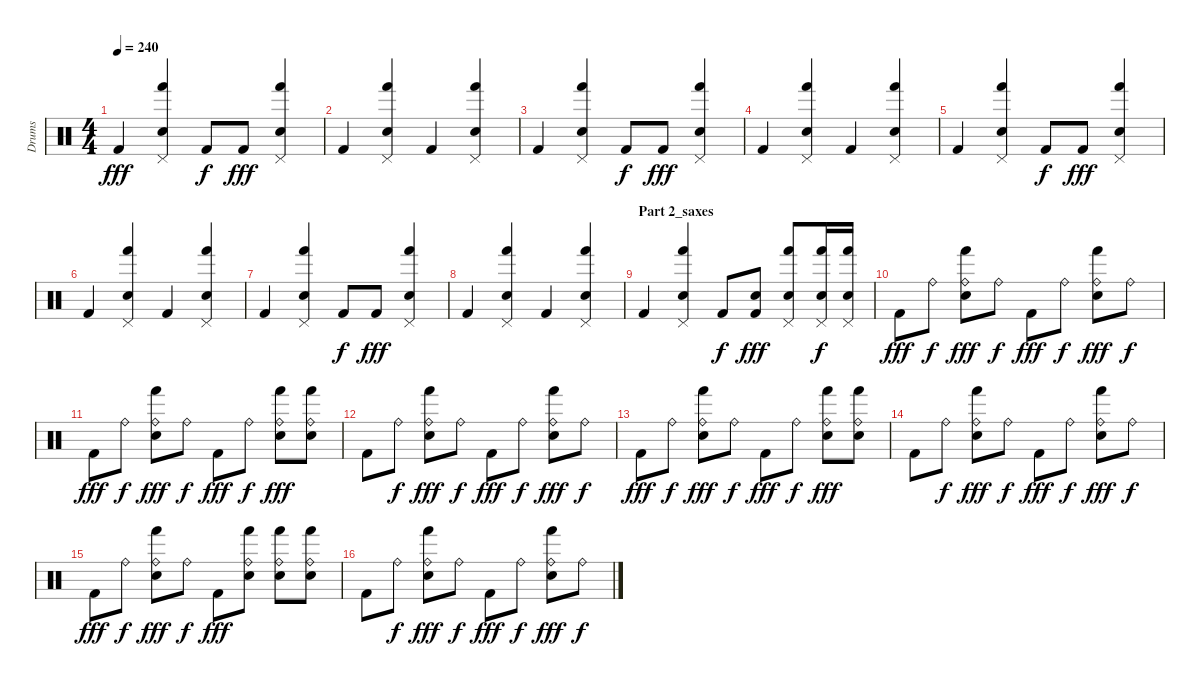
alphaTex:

\track ("Drums" "Drums") {instrument percussion}
\staff {score}
\articulation defaults
\ts (4 4)
\tempo 240
\clef neutral
\ks c "Kick (hit) 2".4{dy fff}
("Pedal Hi-Hat (hit)" "Hand (hit)" "Electric Snare (hit)").4 "Kick (hit) 2".8{dy f} "Kick (hit) 2".8{dy fff} ("Pedal Hi-Hat (hit)" "Hand (hit)" "Electric Snare (hit)").4 |
"Kick (hit) 2".4 ("Pedal Hi-Hat (hit)" "Hand (hit)" "Electric Snare (hit)").4 "Kick (hit) 2".4 ("Pedal Hi-Hat (hit)" "Hand (hit)" "Electric Snare (hit)").4 |
"Kick (hit) 2".4 ("Pedal Hi-Hat (hit)" "Hand (hit)" "Electric Snare (hit)").4 "Kick (hit) 2".8{dy f} "Kick (hit) 2".8{dy fff} ("Pedal Hi-Hat (hit)" "Hand (hit)" "Electric Snare (hit)").4 |
"Kick (hit) 2".4 ("Pedal Hi-Hat (hit)" "Hand (hit)" "Electric Snare (hit)").4 "Kick (hit) 2".4 ("Pedal Hi-Hat (hit)" "Hand (hit)" "Electric Snare (hit)").4 |
"Kick (hit) 2".4 ("Pedal Hi-Hat (hit)" "Hand (hit)" "Electric Snare (hit)").4 "Kick (hit) 2".8{dy f} "Kick (hit) 2".8{dy fff} ("Pedal Hi-Hat (hit)" "Hand (hit)" "Electric Snare (hit)").4 |
"Kick (hit) 2".4 ("Pedal Hi-Hat (hit)" "Hand (hit)" "Electric Snare (hit)").4 "Kick (hit) 2".4 ("Pedal Hi-Hat (hit)" "Hand (hit)" "Electric Snare (hit)").4 |
"Kick (hit) 2".4 ("Pedal Hi-Hat (hit)" "Hand (hit)" "Electric Snare (hit)").4 "Kick (hit) 2".8{dy f} "Kick (hit) 2".8{dy fff} ("Pedal Hi-Hat (hit)" "Hand (hit)" "Electric Snare (hit)").4 |
"Kick (hit) 2".4 ("Pedal Hi-Hat (hit)" "Hand (hit)" "Electric Snare (hit)").4 "Kick (hit) 2".4 ("Pedal Hi-Hat (hit)" "Hand (hit)" "Electric Snare (hit)").4 |
\section ("" "Part 2_saxes")
"Kick (hit) 2".4 ("Pedal Hi-Hat (hit)" "Hand (hit)" "Electric Snare (hit)").4 "Kick (hit) 2".8{dy f} ("Electric Snare (hit)" "Kick (hit) 2").8{dy fff} ("Pedal Hi-Hat (hit)" "Hand (hit)" "Electric Snare (hit)").8 ("Pedal Hi-Hat (hit)" "Hand (hit)" "Electric Snare (hit)").16{dy f} ("Pedal Hi-Hat (hit)" "Hand (hit)" "Electric Snare (hit)").16 |
"Kick (hit) 2".8{dy fff} "Ride (bell)".8{dy f} ("Ride (bell)" "Hand (hit)" "Electric Snare (hit)").8{dy fff} "Ride (bell)".8{dy f} "Kick (hit) 2".8{dy fff} "Ride (bell)".8{dy f} ("Ride (bell)" "Hand (hit)" "Electric Snare (hit)").8{dy fff} "Ride (bell)".8{dy f} |
"Kick (hit) 2".8{dy fff} "Ride (bell)".8{dy f} ("Ride (bell)" "Hand (hit)" "Electric Snare (hit)").8{dy fff} "Ride (bell)".8{dy f} "Kick (hit) 2".8{dy fff} "Ride (bell)".8{dy f} ("Ride (bell)" "Hand (hit)" "Electric Snare (hit)").8{dy fff} ("Ride (bell)" "Hand (hit)" "Electric Snare (hit)").8 |
"Kick (hit) 2".8 "Ride (bell)".8{dy f} ("Ride (bell)" "Hand (hit)" "Electric Snare (hit)").8{dy fff} "Ride (bell)".8{dy f} "Kick (hit) 2".8{dy fff} "Ride (bell)".8{dy f} ("Ride (bell)" "Hand (hit)" "Electric Snare (hit)").8{dy fff} "Ride (bell)".8{dy f} |
"Kick (hit) 2".8{dy fff} "Ride (bell)".8{dy f} ("Ride (bell)" "Hand (hit)" "Electric Snare (hit)").8{dy fff} "Ride (bell)".8{dy f} "Kick (hit) 2".8{dy fff} "Ride (bell)".8{dy f} ("Ride (bell)" "Hand (hit)" "Electric Snare (hit)").8{dy fff} ("Ride (bell)" "Hand (hit)" "Electric Snare (hit)").8 |
"Kick (hit) 2".8 "Ride (bell)".8{dy f} ("Ride (bell)" "Hand (hit)" "Electric Snare (hit)").8{dy fff} "Ride (bell)".8{dy f} "Kick (hit) 2".8{dy fff} "Ride (bell)".8{dy f} ("Ride (bell)" "Hand (hit)" "Electric Snare (hit)").8{dy fff} "Ride (bell)".8{dy f} |
"Kick (hit) 2".8{dy fff} "Ride (bell)".8{dy f} ("Ride (bell)" "Hand (hit)" "Electric Snare (hit)").8{dy fff} "Ride (bell)".8{dy f} "Kick (hit) 2".8{dy fff} ("Ride (bell)" "Hand (hit)" "Electric Snare (hit)").8 ("Ride (bell)" "Hand (hit)" "Electric Snare (hit)").8 ("Ride (bell)" "Hand (hit)" "Electric Snare (hit)").8 |
"Kick (hit) 2".8 "Ride (bell)".8{dy f} ("Ride (bell)" "Hand (hit)" "Electric Snare (hit)").8{dy fff} "Ride (bell)".8{dy f} "Kick (hit) 2".8{dy fff} "Ride (bell)".8{dy f} ("Ride (bell)" "Hand (hit)" "Electric Snare (hit)").8{dy fff} "Ride (bell)".8{dy f}
